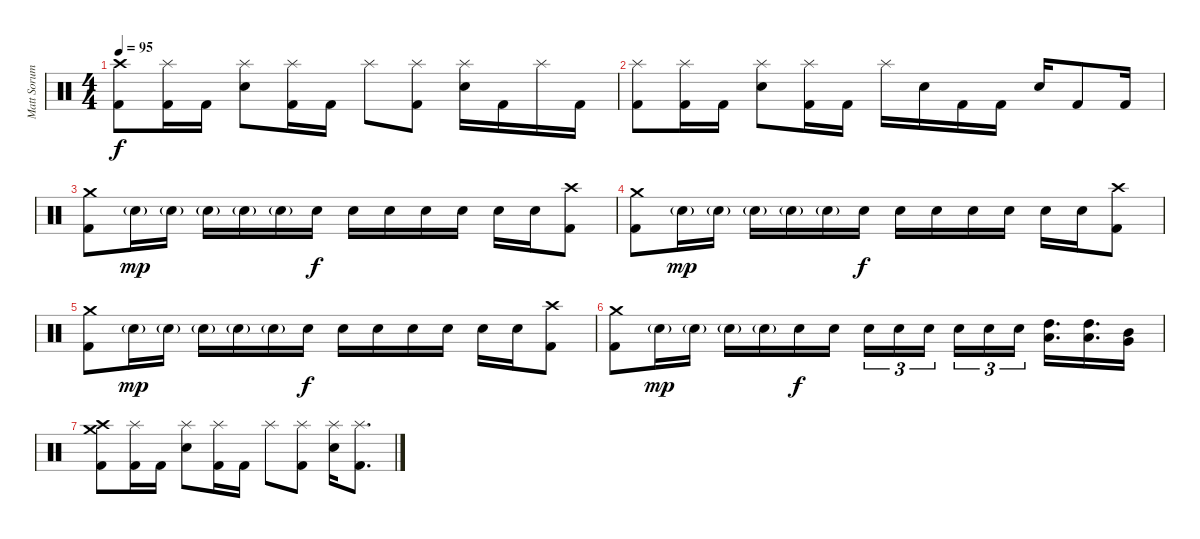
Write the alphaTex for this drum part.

\track ("Matt Sorum" "Matt Sorum") {instrument percussion}
\staff {score}
\articulation defaults
\ts (4 4)
\tempo 95
\clef neutral
\ks c
("Crash high (hit)" "Kick (hit) 2").8{dy f} ("Splash (hit)" "Kick (hit) 2").16 "Kick (hit) 2".16 ("Splash (hit)" "Electric Snare (hit)").8 ("Splash (hit)" "Kick (hit) 2").16 "Kick (hit) 2".16 "Splash (hit)".8 ("Splash (hit)" "Kick (hit) 2").8 ("Splash (hit)" "Electric Snare (hit)").16 "Kick (hit) 2".16 "Splash (hit)".16 "Kick (hit) 2".16 |
("Splash (hit)" "Kick (hit) 2").8 ("Splash (hit)" "Kick (hit) 2").16 "Kick (hit) 2".16 ("Splash (hit)" "Electric Snare (hit)").8 ("Splash (hit)" "Kick (hit) 2").16 "Kick (hit) 2".16 "Splash (hit)".16 "Electric Snare (hit)".16 "Kick (hit) 2".16 "Kick (hit) 2".16 "Electric Snare (hit)".16 "Kick (hit) 2".8 "Kick (hit) 2".16 |
("Crash medium (hit)" "Kick (hit) 2").8 "Electric Snare (hit)"{g}.16{dy mp} "Electric Snare (hit)"{g}.16 "Electric Snare (hit)"{g}.16 "Electric Snare (hit)"{g}.16 "Electric Snare (hit)"{g}.16 "Electric Snare (hit)".16{dy f} "Electric Snare (hit)".16 "Electric Snare (hit)".16 "Electric Snare (hit)".16 "Electric Snare (hit)".16 "Electric Snare (hit)".16 "Electric Snare (hit)".16 ("Crash high (hit)" "Kick (hit) 2").8 |
("Crash medium (hit)" "Kick (hit) 2").8 "Electric Snare (hit)"{g}.16{dy mp} "Electric Snare (hit)"{g}.16 "Electric Snare (hit)"{g}.16 "Electric Snare (hit)"{g}.16 "Electric Snare (hit)"{g}.16 "Electric Snare (hit)".16{dy f} "Electric Snare (hit)".16 "Electric Snare (hit)".16 "Electric Snare (hit)".16 "Electric Snare (hit)".16 "Electric Snare (hit)".16 "Electric Snare (hit)".16 ("Crash high (hit)" "Kick (hit) 2").8 |
("Crash medium (hit)" "Kick (hit) 2").8 "Electric Snare (hit)"{g}.16{dy mp} "Electric Snare (hit)"{g}.16 "Electric Snare (hit)"{g}.16 "Electric Snare (hit)"{g}.16 "Electric Snare (hit)"{g}.16 "Electric Snare (hit)".16{dy f} "Electric Snare (hit)".16 "Electric Snare (hit)".16 "Electric Snare (hit)".16 "Electric Snare (hit)".16 "Electric Snare (hit)".16 "Electric Snare (hit)".16 ("Crash high (hit)" "Kick (hit) 2").8 |
("Crash medium (hit)" "Kick (hit) 2").8 "Electric Snare (hit)"{g}.16{dy mp} "Electric Snare (hit)"{g}.16 "Electric Snare (hit)"{g}.16 "Electric Snare (hit)"{g}.16 "Electric Snare (hit)".16{dy f} "Electric Snare (hit)".16 "Electric Snare (hit)".16{tu (3 2)} "Electric Snare (hit)".16{tu (3 2)} "Electric Snare (hit)".16{tu (3 2) beam splitsecondary} "Electric Snare (hit)".16{tu (3 2)} "Electric Snare (hit)".16{tu (3 2)} "Electric Snare (hit)".16{tu (3 2)} ("High Tom (hit)" "Low Tom (hit)").16{d} ("High Tom (hit)" "Low Tom (hit)").16{d} ("Mid Tom (hit)" "Very Low Tom (hit)").16 |
("Crash medium (hit)" "Crash high (hit)" "Kick (hit) 2").8 ("Splash (hit)" "Kick (hit) 2").16 "Kick (hit) 2".16 ("Splash (hit)" "Electric Snare (hit)").8 ("Splash (hit)" "Kick (hit) 2").16 "Kick (hit) 2".16 "Splash (hit)".8 ("Splash (hit)" "Kick (hit) 2").8 ("Splash (hit)" "Electric Snare (hit)").16 ("Splash (hit)" "Kick (hit) 2").8{d}
